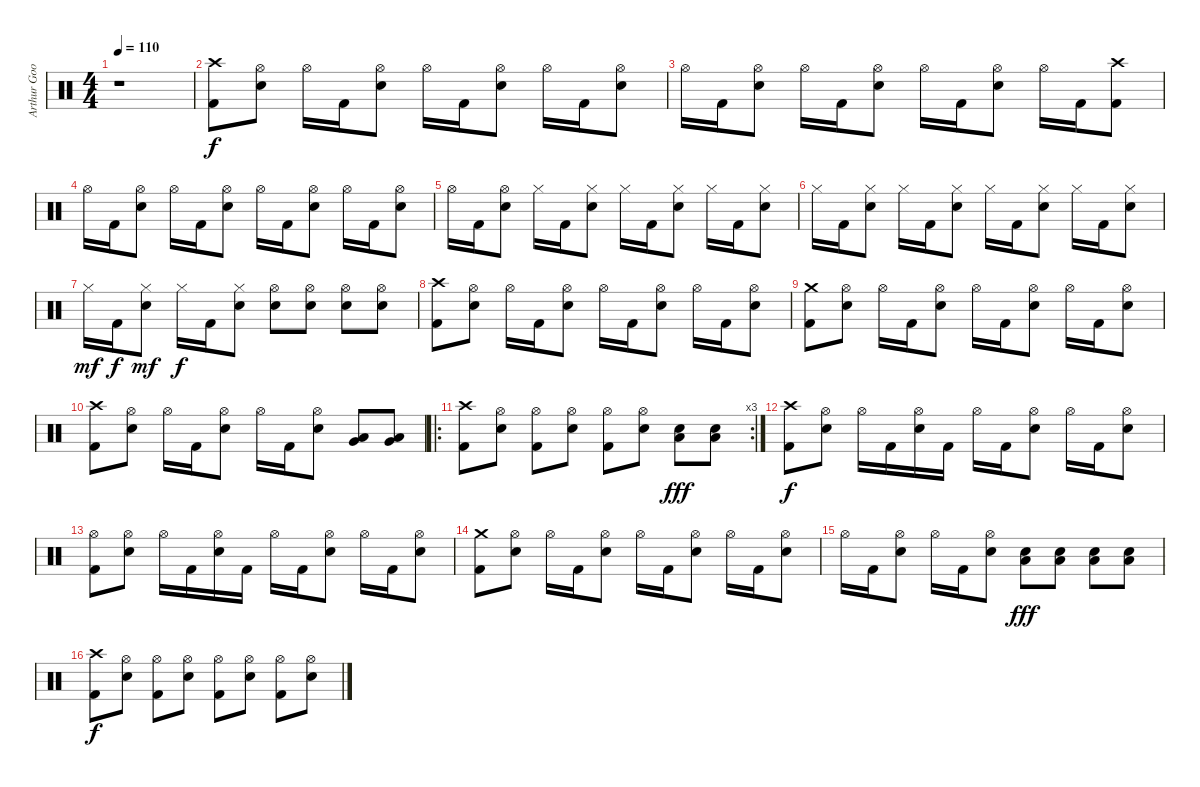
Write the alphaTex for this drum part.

\track ("Arthur Googy" "Arthur Goo") {instrument percussion}
\staff {score}
\articulation defaults
\ts (4 4)
\tempo 110
\clef neutral
\ks c
r.1{dy f} |
("Crash high (hit)" "Kick (hit) 2").8 ("Hi-Hat (open)" "Electric Snare (hit)").8 "Hi-Hat (open)".16 "Kick (hit) 2".16 ("Hi-Hat (open)" "Electric Snare (hit)").8 "Hi-Hat (open)".16 "Kick (hit) 2".16 ("Hi-Hat (open)" "Electric Snare (hit)").8 "Hi-Hat (open)".16 "Kick (hit) 2".16 ("Hi-Hat (open)" "Electric Snare (hit)").8 |
"Hi-Hat (open)".16 "Kick (hit) 2".16 ("Hi-Hat (open)" "Electric Snare (hit)").8 "Hi-Hat (open)".16 "Kick (hit) 2".16 ("Hi-Hat (open)" "Electric Snare (hit)").8 "Hi-Hat (open)".16 "Kick (hit) 2".16 ("Hi-Hat (open)" "Electric Snare (hit)").8 "Hi-Hat (open)".16 "Kick (hit) 2".16 ("Crash high (hit)" "Kick (hit) 2").8 |
"Hi-Hat (open)".16 "Kick (hit) 2".16 ("Hi-Hat (open)" "Electric Snare (hit)").8 "Hi-Hat (open)".16 "Kick (hit) 2".16 ("Hi-Hat (open)" "Electric Snare (hit)").8 "Hi-Hat (open)".16 "Kick (hit) 2".16 ("Hi-Hat (open)" "Electric Snare (hit)").8 "Hi-Hat (open)".16 "Kick (hit) 2".16 ("Hi-Hat (open)" "Electric Snare (hit)").8 |
"Hi-Hat (open)".16 "Kick (hit) 2".16 ("Hi-Hat (open)" "Electric Snare (hit)").8 "Hi-Hat (closed)".16 "Kick (hit) 2".16 ("Hi-Hat (closed)" "Electric Snare (hit)").8 "Hi-Hat (closed)".16 "Kick (hit) 2".16 ("Hi-Hat (closed)" "Electric Snare (hit)").8 "Hi-Hat (closed)".16 "Kick (hit) 2".16 ("Hi-Hat (closed)" "Electric Snare (hit)").8 |
"Hi-Hat (closed)".16 "Kick (hit) 2".16 ("Hi-Hat (closed)" "Electric Snare (hit)").8 "Hi-Hat (closed)".16 "Kick (hit) 2".16 ("Hi-Hat (closed)" "Electric Snare (hit)").8 "Hi-Hat (closed)".16 "Kick (hit) 2".16 ("Hi-Hat (closed)" "Electric Snare (hit)").8 "Hi-Hat (closed)".16 "Kick (hit) 2".16 ("Hi-Hat (closed)" "Electric Snare (hit)").8 |
"Hi-Hat (closed)".16{dy mf} "Kick (hit) 2".16{dy f} ("Hi-Hat (closed)" "Electric Snare (hit)").8{dy mf} "Hi-Hat (closed)".16{dy f} "Kick (hit) 2".16 ("Hi-Hat (closed)" "Electric Snare (hit)").8 ("Hi-Hat (open)" "Electric Snare (hit)").8 ("Hi-Hat (open)" "Electric Snare (hit)").8 ("Hi-Hat (open)" "Electric Snare (hit)").8 ("Hi-Hat (open)" "Electric Snare (hit)").8 |
("Crash high (hit)" "Kick (hit) 2").8 ("Hi-Hat (open)" "Electric Snare (hit)").8 "Hi-Hat (open)".16 "Kick (hit) 2".16 ("Hi-Hat (open)" "Electric Snare (hit)").8 "Hi-Hat (open)".16 "Kick (hit) 2".16 ("Hi-Hat (open)" "Electric Snare (hit)").8 "Hi-Hat (open)".16 "Kick (hit) 2".16 ("Hi-Hat (open)" "Electric Snare (hit)").8 |
("Crash medium (hit)" "Kick (hit) 2").8 ("Hi-Hat (open)" "Electric Snare (hit)").8 "Hi-Hat (open)".16 "Kick (hit) 2".16 ("Hi-Hat (open)" "Electric Snare (hit)").8 "Hi-Hat (open)".16 "Kick (hit) 2".16 ("Hi-Hat (open)" "Electric Snare (hit)").8 "Hi-Hat (open)".16 "Kick (hit) 2".16 ("Hi-Hat (open)" "Electric Snare (hit)").8 |
("Crash high (hit)" "Kick (hit) 2").8 ("Hi-Hat (open)" "Electric Snare (hit)").8 "Hi-Hat (open)".16 "Kick (hit) 2".16 ("Hi-Hat (open)" "Electric Snare (hit)").8 "Hi-Hat (open)".16 "Kick (hit) 2".16 ("Hi-Hat (open)" "Electric Snare (hit)").8 ("Low Tom (hit)" "Very Low Tom (hit)").8 ("Low Tom (hit)" "Very Low Tom (hit)").8 |
\ro
\rc 3
("Crash high (hit)" "Kick (hit) 2").8 ("Hi-Hat (open)" "Electric Snare (hit)").8 ("Hi-Hat (open)" "Kick (hit) 2").8 ("Hi-Hat (open)" "Electric Snare (hit)").8 ("Hi-Hat (open)" "Kick (hit) 2").8 ("Hi-Hat (open)" "Electric Snare (hit)").8 ("Low Tom (hit)" "Electric Snare (hit)").8{dy fff} ("Low Tom (hit)" "Electric Snare (hit)").8 |
("Crash high (hit)" "Kick (hit) 2").8{dy f} ("Hi-Hat (open)" "Electric Snare (hit)").8 "Hi-Hat (open)".16 "Kick (hit) 2".16 ("Hi-Hat (open)" "Electric Snare (hit)").16 "Kick (hit) 2".16 "Hi-Hat (open)".16 "Kick (hit) 2".16 ("Hi-Hat (open)" "Electric Snare (hit)").8 "Hi-Hat (open)".16 "Kick (hit) 2".16 ("Hi-Hat (open)" "Electric Snare (hit)").8 |
("Hi-Hat (open)" "Kick (hit) 2").8 ("Hi-Hat (open)" "Electric Snare (hit)").8 "Hi-Hat (open)".16 "Kick (hit) 2".16 ("Hi-Hat (open)" "Electric Snare (hit)").16 "Kick (hit) 2".16 "Hi-Hat (open)".16 "Kick (hit) 2".16 ("Hi-Hat (open)" "Electric Snare (hit)").8 "Hi-Hat (open)".16 "Kick (hit) 2".16 ("Hi-Hat (open)" "Electric Snare (hit)").8 |
("Crash medium (hit)" "Kick (hit) 2").8 ("Hi-Hat (open)" "Electric Snare (hit)").8 "Hi-Hat (open)".16 "Kick (hit) 2".16 ("Hi-Hat (open)" "Electric Snare (hit)").8 "Hi-Hat (open)".16 "Kick (hit) 2".16 ("Hi-Hat (open)" "Electric Snare (hit)").8 "Hi-Hat (open)".16 "Kick (hit) 2".16 ("Hi-Hat (open)" "Electric Snare (hit)").8 |
"Hi-Hat (open)".16 "Kick (hit) 2".16 ("Hi-Hat (open)" "Electric Snare (hit)").8 "Hi-Hat (open)".16 "Kick (hit) 2".16 ("Hi-Hat (open)" "Electric Snare (hit)").8 ("Low Tom (hit)" "Electric Snare (hit)").8{dy fff} ("Low Tom (hit)" "Electric Snare (hit)").8 ("Low Tom (hit)" "Electric Snare (hit)").8 ("Low Tom (hit)" "Electric Snare (hit)").8 |
("Crash high (hit)" "Kick (hit) 2").8{dy f} ("Hi-Hat (open)" "Electric Snare (hit)").8 ("Hi-Hat (open)" "Kick (hit) 2").8 ("Hi-Hat (open)" "Electric Snare (hit)").8 ("Hi-Hat (open)" "Kick (hit) 2").8 ("Hi-Hat (open)" "Electric Snare (hit)").8 ("Hi-Hat (open)" "Kick (hit) 2").8 ("Hi-Hat (open)" "Electric Snare (hit)").8
